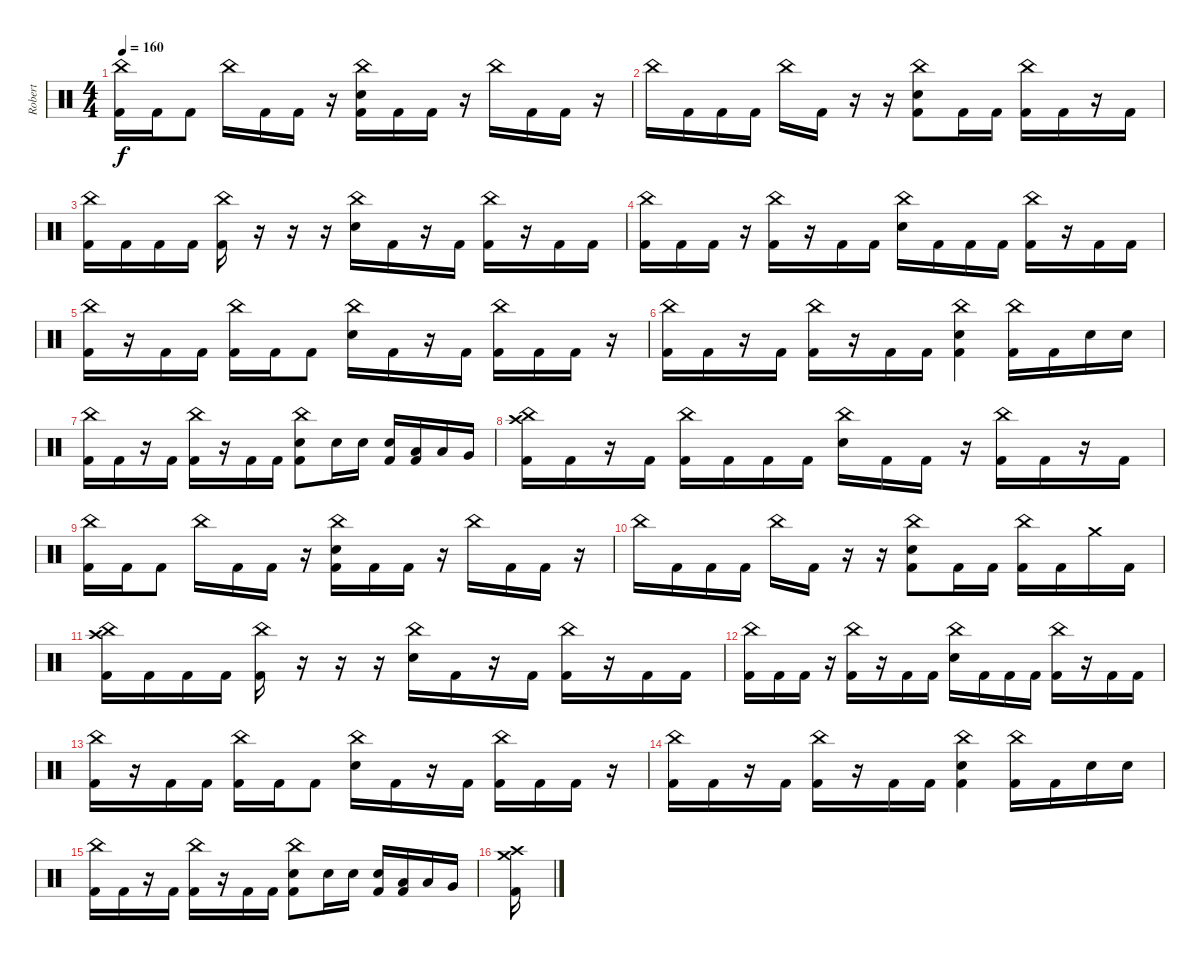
\track ("Robert" "Robert") {instrument percussion}
\staff {score}
\articulation defaults
\ts (4 4)
\tempo 160
\clef neutral
\ks c
("China (hit)" "Kick (hit) 2").16{dy f} "Kick (hit) 2".16 "Kick (hit) 2".8 "China (hit)".16 "Kick (hit) 2".16 "Kick (hit) 2".16 r.16 ("China (hit)" "Electric Snare (hit)" "Kick (hit) 2").16 "Kick (hit) 2".16 "Kick (hit) 2".16 r.16 "China (hit)".16 "Kick (hit) 2".16 "Kick (hit) 2".16 r.16 |
"China (hit)".16 "Kick (hit) 2".16 "Kick (hit) 2".16 "Kick (hit) 2".16 "China (hit)".16 "Kick (hit) 2".16 r.16 r.16 ("Kick (hit) 2" "Electric Snare (hit)" "China (hit)").8 "Kick (hit) 2".16 "Kick (hit) 2".16 ("China (hit)" "Kick (hit) 2").16 "Kick (hit) 2".16 r.16 "Kick (hit) 2".16 |
("China (hit)" "Kick (hit) 2").16 "Kick (hit) 2".16 "Kick (hit) 2".16 "Kick (hit) 2".16 ("China (hit)" "Kick (hit) 2").16 r.16 r.16 r.16 ("China (hit)" "Electric Snare (hit)").16 "Kick (hit) 2".16 r.16 "Kick (hit) 2".16 ("China (hit)" "Kick (hit) 2").16 r.16 "Kick (hit) 2".16 "Kick (hit) 2".16 |
("China (hit)" "Kick (hit) 2").16 "Kick (hit) 2".16 "Kick (hit) 2".16 r.16 ("China (hit)" "Kick (hit) 2").16 r.16 "Kick (hit) 2".16 "Kick (hit) 2".16 ("Electric Snare (hit)" "China (hit)").16 "Kick (hit) 2".16 "Kick (hit) 2".16 "Kick (hit) 2".16 ("China (hit)" "Kick (hit) 2").16 r.16 "Kick (hit) 2".16 "Kick (hit) 2".16 |
("China (hit)" "Kick (hit) 2").16 r.16 "Kick (hit) 2".16 "Kick (hit) 2".16 ("China (hit)" "Kick (hit) 2").16 "Kick (hit) 2".16 "Kick (hit) 2".8 ("China (hit)" "Electric Snare (hit)").16 "Kick (hit) 2".16 r.16 "Kick (hit) 2".16 ("China (hit)" "Kick (hit) 2").16 "Kick (hit) 2".16 "Kick (hit) 2".16 r.16 |
("China (hit)" "Kick (hit) 2").16 "Kick (hit) 2".16 r.16 "Kick (hit) 2".16 ("China (hit)" "Kick (hit) 2").16 r.16 "Kick (hit) 2".16 "Kick (hit) 2".16 ("China (hit)" "Electric Snare (hit)" "Kick (hit) 2").4 ("China (hit)" "Kick (hit) 2").16 "Kick (hit) 2".16 "Electric Snare (hit)".16 "Electric Snare (hit)".16 |
("China (hit)" "Kick (hit) 2").16 "Kick (hit) 2".16 r.16 "Kick (hit) 2".16 ("China (hit)" "Kick (hit) 2").16 r.16 "Kick (hit) 2".16 "Kick (hit) 2".16 ("China (hit)" "Electric Snare (hit)" "Kick (hit) 2").8 "Electric Snare (hit)".16 "Electric Snare (hit)".16 ("Electric Snare (hit)" "Kick (hit) 2").16 ("Low Tom (hit)" "Kick (hit) 2").16 "Low Tom (hit)".16 "Very Low Tom (hit)".16 |
("China (hit)" "Crash high (hit)" "Kick (hit) 2").16 "Kick (hit) 2".16 r.16 "Kick (hit) 2".16 ("China (hit)" "Kick (hit) 2").16 "Kick (hit) 2".16 "Kick (hit) 2".16 "Kick (hit) 2".16 ("China (hit)" "Electric Snare (hit)").16 "Kick (hit) 2".16 "Kick (hit) 2".16 r.16 ("China (hit)" "Kick (hit) 2").16 "Kick (hit) 2".16 r.16 "Kick (hit) 2".16 |
("China (hit)" "Kick (hit) 2").16 "Kick (hit) 2".16 "Kick (hit) 2".8 "China (hit)".16 "Kick (hit) 2".16 "Kick (hit) 2".16 r.16 ("China (hit)" "Electric Snare (hit)" "Kick (hit) 2").16 "Kick (hit) 2".16 "Kick (hit) 2".16 r.16 "China (hit)".16 "Kick (hit) 2".16 "Kick (hit) 2".16 r.16 |
"China (hit)".16 "Kick (hit) 2".16 "Kick (hit) 2".16 "Kick (hit) 2".16 "China (hit)".16 "Kick (hit) 2".16 r.16 r.16 ("Kick (hit) 2" "Electric Snare (hit)" "China (hit)").8 "Kick (hit) 2".16 "Kick (hit) 2".16 ("China (hit)" "Kick (hit) 2").16 "Kick (hit) 2".16 "Crash medium (hit)".16 "Kick (hit) 2".16 |
("China (hit)" "Crash high (hit)" "Kick (hit) 2").16 "Kick (hit) 2".16 "Kick (hit) 2".16 "Kick (hit) 2".16 ("China (hit)" "Kick (hit) 2").16 r.16 r.16 r.16 ("China (hit)" "Electric Snare (hit)").16 "Kick (hit) 2".16 r.16 "Kick (hit) 2".16 ("China (hit)" "Kick (hit) 2").16 r.16 "Kick (hit) 2".16 "Kick (hit) 2".16 |
("China (hit)" "Kick (hit) 2").16 "Kick (hit) 2".16 "Kick (hit) 2".16 r.16 ("China (hit)" "Kick (hit) 2").16 r.16 "Kick (hit) 2".16 "Kick (hit) 2".16 ("Electric Snare (hit)" "China (hit)").16 "Kick (hit) 2".16 "Kick (hit) 2".16 "Kick (hit) 2".16 ("China (hit)" "Kick (hit) 2").16 r.16 "Kick (hit) 2".16 "Kick (hit) 2".16 |
("China (hit)" "Kick (hit) 2").16 r.16 "Kick (hit) 2".16 "Kick (hit) 2".16 ("China (hit)" "Kick (hit) 2").16 "Kick (hit) 2".16 "Kick (hit) 2".8 ("China (hit)" "Electric Snare (hit)").16 "Kick (hit) 2".16 r.16 "Kick (hit) 2".16 ("China (hit)" "Kick (hit) 2").16 "Kick (hit) 2".16 "Kick (hit) 2".16 r.16 |
("China (hit)" "Kick (hit) 2").16 "Kick (hit) 2".16 r.16 "Kick (hit) 2".16 ("China (hit)" "Kick (hit) 2").16 r.16 "Kick (hit) 2".16 "Kick (hit) 2".16 ("China (hit)" "Electric Snare (hit)" "Kick (hit) 2").4 ("China (hit)" "Kick (hit) 2").16 "Kick (hit) 2".16 "Electric Snare (hit)".16 "Electric Snare (hit)".16 |
("China (hit)" "Kick (hit) 2").16 "Kick (hit) 2".16 r.16 "Kick (hit) 2".16 ("China (hit)" "Kick (hit) 2").16 r.16 "Kick (hit) 2".16 "Kick (hit) 2".16 ("China (hit)" "Electric Snare (hit)" "Kick (hit) 2").8 "Electric Snare (hit)".16 "Electric Snare (hit)".16 ("Electric Snare (hit)" "Kick (hit) 2").16 ("Low Tom (hit)" "Kick (hit) 2").16 "Low Tom (hit)".16 "Very Low Tom (hit)".16 |
("Kick (hit) 2" "Crash high (hit)" "Crash medium (hit)").16
